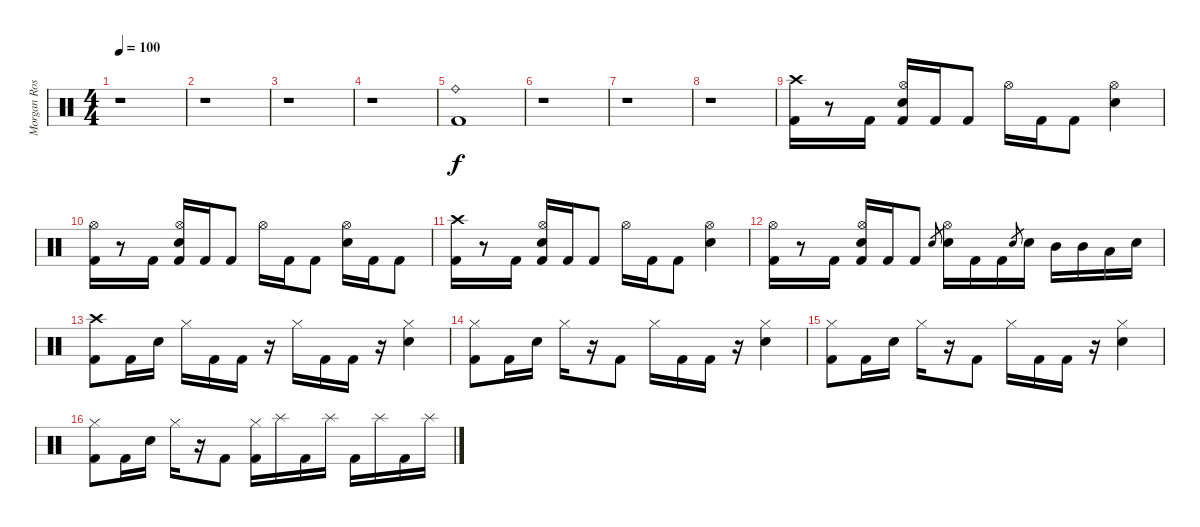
\track ("Morgan Rose - Drums" "Morgan Ros") {instrument percussion}
\staff {score}
\articulation defaults
\ts (4 4)
\tempo 100
\clef neutral
\ks c
r.1{dy f} |
r.1 |
r.1 |
r.1 |
("Ride (bell)" "Kick (hit) 2").1 |
r.1 |
r.1 |
r.1 |
("Crash high (hit)" "Kick (hit) 2").16 r.8 "Kick (hit) 2".16 ("Hi-Hat (open)" "Electric Snare (hit)" "Kick (hit) 2").16 "Kick (hit) 2".16 "Kick (hit) 2".8 "Hi-Hat (open)".16 "Kick (hit) 2".16 "Kick (hit) 2".8 ("Hi-Hat (open)" "Electric Snare (hit)").4 |
("Hi-Hat (open)" "Kick (hit) 2").16 r.8 "Kick (hit) 2".16 ("Hi-Hat (open)" "Electric Snare (hit)" "Kick (hit) 2").16 "Kick (hit) 2".16 "Kick (hit) 2".8 "Hi-Hat (open)".16 "Kick (hit) 2".16 "Kick (hit) 2".8 ("Hi-Hat (open)" "Electric Snare (hit)").16 "Kick (hit) 2".16 "Kick (hit) 2".8 |
("Crash high (hit)" "Kick (hit) 2").16 r.8 "Kick (hit) 2".16 ("Hi-Hat (open)" "Electric Snare (hit)" "Kick (hit) 2").16 "Kick (hit) 2".16 "Kick (hit) 2".8 "Hi-Hat (open)".16 "Kick (hit) 2".16 "Kick (hit) 2".8 ("Hi-Hat (open)" "Electric Snare (hit)").4 |
("Hi-Hat (open)" "Kick (hit) 2").16 r.8 "Kick (hit) 2".16 ("Hi-Hat (open)" "Electric Snare (hit)" "Kick (hit) 2").16 "Kick (hit) 2".16 "Kick (hit) 2".8 "Electric Snare (hit)"{sl}.8{gr} ("Hi-Hat (open)" "Electric Snare (hit)").16 "Kick (hit) 2".16 "Kick (hit) 2".16 "Electric Snare (hit)".8{gr} "Electric Snare (hit)".16 "Mid Tom (hit)".16 "Mid Tom (hit)".16 "Low Tom (hit)".16 "Electric Snare (hit)".16 |
("Crash high (hit)" "Kick (hit) 2").8 "Kick (hit) 2".16 "Electric Snare (hit)".16 "Hi-Hat (closed)".16 "Kick (hit) 2".16 "Kick (hit) 2".16 r.16 "Hi-Hat (closed)".16 "Kick (hit) 2".16 "Kick (hit) 2".16 r.16 ("Hi-Hat (closed)" "Electric Snare (hit)").4 |
("Hi-Hat (closed)" "Kick (hit) 2").8 "Kick (hit) 2".16 "Electric Snare (hit)".16 "Hi-Hat (closed)".16 r.16 "Kick (hit) 2".8 "Hi-Hat (closed)".16 "Kick (hit) 2".16 "Kick (hit) 2".16 r.16 ("Hi-Hat (closed)" "Electric Snare (hit)").4 |
("Hi-Hat (closed)" "Kick (hit) 2").8 "Kick (hit) 2".16 "Electric Snare (hit)".16 "Hi-Hat (closed)".16 r.16 "Kick (hit) 2".8 "Hi-Hat (closed)".16 "Kick (hit) 2".16 "Kick (hit) 2".16 r.16 ("Hi-Hat (closed)" "Electric Snare (hit)").4 |
("Hi-Hat (closed)" "Kick (hit) 2").8 "Kick (hit) 2".16 "Electric Snare (hit)".16 "Hi-Hat (closed)".16 r.16 "Kick (hit) 2".8 ("Hi-Hat (closed)" "Kick (hit) 2").16 "Splash (hit)".16 "Kick (hit) 2".16 "Splash (hit)".16 "Kick (hit) 2".16 "Splash (hit)".16 "Kick (hit) 2".16 "Splash (hit)".16
